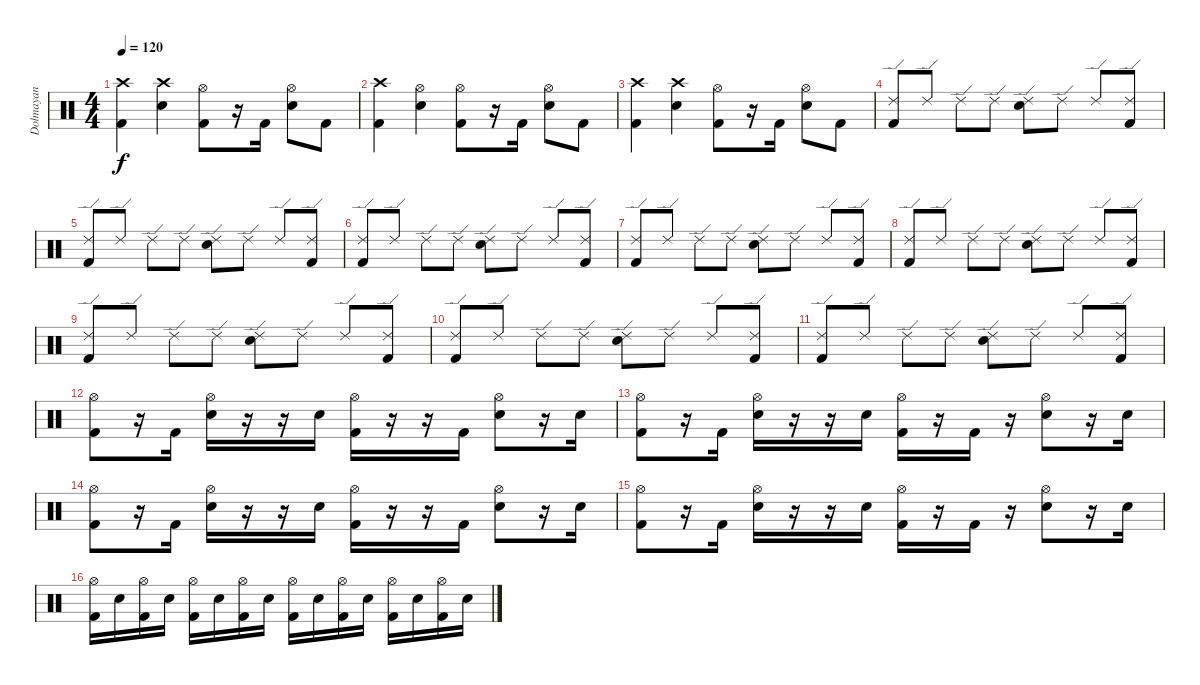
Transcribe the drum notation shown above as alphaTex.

\track ("Dolmayan" "Dolmayan") {instrument percussion}
\staff {score}
\articulation defaults
\ts (4 4)
\tempo 120
\clef neutral
\ks c
("Crash high (hit)" "Kick (hit) 2").4{dy f} ("Crash high (hit)" "Snare (hit) 2").4 ("Hi-Hat (open)" "Kick (hit) 2").8 r.16 "Kick (hit) 2".16 ("Hi-Hat (open)" "Snare (hit) 2").8 "Kick (hit) 2".8 |
("Crash high (hit)" "Kick (hit) 2").4 ("Hi-Hat (open)" "Snare (hit) 2").4 ("Hi-Hat (open)" "Kick (hit) 2").8 r.16 "Kick (hit) 2".16 ("Hi-Hat (open)" "Snare (hit) 2").8 "Kick (hit) 2".8 |
("Crash high (hit)" "Kick (hit) 2").4 ("Crash high (hit)" "Snare (hit) 2").4 ("Hi-Hat (open)" "Kick (hit) 2").8 r.16 "Kick (hit) 2".16 ("Hi-Hat (open)" "Snare (hit) 2").8 "Kick (hit) 2".8 |
("Ride (edge) 2" "Kick (hit) 2").8 "Ride (edge) 2".8 "Ride (edge) 2".8 "Ride (edge) 2".8 ("Ride (edge) 2" "Snare (hit) 2").8 "Ride (edge) 2".8 "Ride (edge) 2".8 ("Ride (edge) 2" "Kick (hit) 2").8 |
("Ride (edge) 2" "Kick (hit) 2").8 "Ride (edge) 2".8 "Ride (edge) 2".8 "Ride (edge) 2".8 ("Ride (edge) 2" "Snare (hit) 2").8 "Ride (edge) 2".8 "Ride (edge) 2".8 ("Ride (edge) 2" "Kick (hit) 2").8 |
("Ride (edge) 2" "Kick (hit) 2").8 "Ride (edge) 2".8 "Ride (edge) 2".8 "Ride (edge) 2".8 ("Ride (edge) 2" "Snare (hit) 2").8 "Ride (edge) 2".8 "Ride (edge) 2".8 ("Ride (edge) 2" "Kick (hit) 2").8 |
("Ride (edge) 2" "Kick (hit) 2").8 "Ride (edge) 2".8 "Ride (edge) 2".8 "Ride (edge) 2".8 ("Ride (edge) 2" "Snare (hit) 2").8 "Ride (edge) 2".8 "Ride (edge) 2".8 ("Ride (edge) 2" "Kick (hit) 2").8 |
("Ride (edge) 2" "Kick (hit) 2").8 "Ride (edge) 2".8 "Ride (edge) 2".8 "Ride (edge) 2".8 ("Ride (edge) 2" "Snare (hit) 2").8 "Ride (edge) 2".8 "Ride (edge) 2".8 ("Ride (edge) 2" "Kick (hit) 2").8 |
("Ride (edge) 2" "Kick (hit) 2").8 "Ride (edge) 2".8 "Ride (edge) 2".8 "Ride (edge) 2".8 ("Ride (edge) 2" "Snare (hit) 2").8 "Ride (edge) 2".8 "Ride (edge) 2".8 ("Ride (edge) 2" "Kick (hit) 2").8 |
("Ride (edge) 2" "Kick (hit) 2").8 "Ride (edge) 2".8 "Ride (edge) 2".8 "Ride (edge) 2".8 ("Ride (edge) 2" "Snare (hit) 2").8 "Ride (edge) 2".8 "Ride (edge) 2".8 ("Ride (edge) 2" "Kick (hit) 2").8 |
("Ride (edge) 2" "Kick (hit) 2").8 "Ride (edge) 2".8 "Ride (edge) 2".8 "Ride (edge) 2".8 ("Ride (edge) 2" "Snare (hit) 2").8 "Ride (edge) 2".8 "Ride (edge) 2".8 ("Ride (edge) 2" "Kick (hit) 2").8 |
("Hi-Hat (open)" "Kick (hit) 2").8 r.16 "Kick (hit) 2".16 ("Hi-Hat (open)" "Snare (hit) 2").16 r.16 r.16 "Snare (hit) 2".16 ("Hi-Hat (open)" "Kick (hit) 2").16 r.16 r.16 "Kick (hit) 2".16 ("Hi-Hat (open)" "Snare (hit) 2").8 r.16 "Snare (hit) 2".16 |
("Hi-Hat (open)" "Kick (hit) 2").8 r.16 "Kick (hit) 2".16 ("Hi-Hat (open)" "Snare (hit) 2").16 r.16 r.16 "Snare (hit) 2".16 ("Hi-Hat (open)" "Kick (hit) 2").16 r.16 "Kick (hit) 2".16 r.16 ("Hi-Hat (open)" "Snare (hit) 2").8 r.16 "Snare (hit) 2".16 |
("Hi-Hat (open)" "Kick (hit) 2").8 r.16 "Kick (hit) 2".16 ("Hi-Hat (open)" "Snare (hit) 2").16 r.16 r.16 "Snare (hit) 2".16 ("Hi-Hat (open)" "Kick (hit) 2").16 r.16 r.16 "Kick (hit) 2".16 ("Hi-Hat (open)" "Snare (hit) 2").8 r.16 "Snare (hit) 2".16 |
("Hi-Hat (open)" "Kick (hit) 2").8 r.16 "Kick (hit) 2".16 ("Hi-Hat (open)" "Snare (hit) 2").16 r.16 r.16 "Snare (hit) 2".16 ("Hi-Hat (open)" "Kick (hit) 2").16 r.16 "Kick (hit) 2".16 r.16 ("Hi-Hat (open)" "Snare (hit) 2").8 r.16 "Snare (hit) 2".16 |
("Hi-Hat (open)" "Kick (hit) 2").16 "Snare (hit) 2".16 ("Hi-Hat (open)" "Kick (hit) 2").16 "Snare (hit) 2".16 ("Hi-Hat (open)" "Kick (hit) 2").16 "Snare (hit) 2".16 ("Hi-Hat (open)" "Kick (hit) 2").16 "Snare (hit) 2".16 ("Hi-Hat (open)" "Kick (hit) 2").16 "Snare (hit) 2".16 ("Hi-Hat (open)" "Kick (hit) 2").16 "Snare (hit) 2".16 ("Hi-Hat (open)" "Kick (hit) 2").16 "Snare (hit) 2".16 ("Hi-Hat (open)" "Kick (hit) 2").16 "Snare (hit) 2".16
